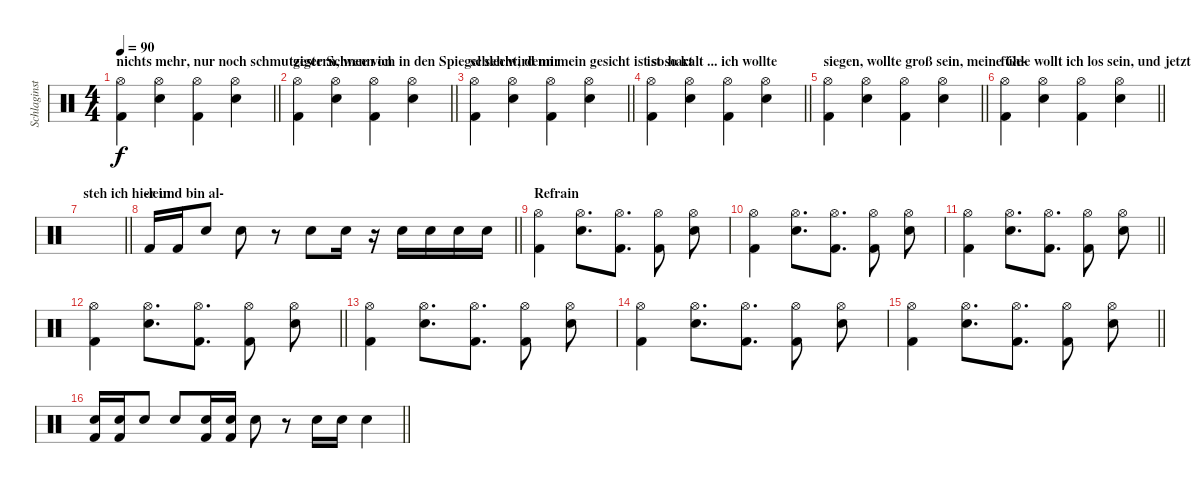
\track ("Schlaginstrumente - Auswahl" "Schlaginst") {instrument percussion}
\staff {score}
\articulation defaults
\ts (4 4)
\section ("" "nichts mehr, nur noch schmutziger Schnee von")
\tempo 90
\clef neutral
\barLineRight lightlight
\ks c
("Kick (hit) 2" "Hi-Hat (open)").4{dy f} ("Snare (hit) 2" "Hi-Hat (open)").4 ("Kick (hit) 2" "Hi-Hat (open)").4 ("Snare (hit) 2" "Hi-Hat (open)").4 |
\section ("" "gestern, wenn ich in den Spiegel seh wird mir")
\barLineRight lightlight
("Kick (hit) 2" "Hi-Hat (open)").4 ("Snare (hit) 2" "Hi-Hat (open)").4 ("Kick (hit) 2" "Hi-Hat (open)").4 ("Snare (hit) 2" "Hi-Hat (open)").4 |
\section ("" "schlecht, denn mein gesicht ist so hart")
\barLineRight lightlight
("Kick (hit) 2" "Hi-Hat (open)").4 ("Snare (hit) 2" "Hi-Hat (open)").4 ("Kick (hit) 2" "Hi-Hat (open)").4 ("Snare (hit) 2" "Hi-Hat (open)").4 |
\section ("" "ist so kalt ... ich wollte")
\barLineRight lightlight
("Kick (hit) 2" "Hi-Hat (open)").4 ("Snare (hit) 2" "Hi-Hat (open)").4 ("Kick (hit) 2" "Hi-Hat (open)").4 ("Snare (hit) 2" "Hi-Hat (open)").4 |
\section ("" "siegen, wollte groß sein, meine Ge-")
\barLineRight lightlight
("Kick (hit) 2" "Hi-Hat (open)").4 ("Snare (hit) 2" "Hi-Hat (open)").4 ("Kick (hit) 2" "Hi-Hat (open)").4 ("Snare (hit) 2" "Hi-Hat (open)").4 |
\section ("" "fühle wollt ich los sein, und jetzt")
\barLineRight lightlight
("Kick (hit) 2" "Hi-Hat (open)").4 ("Snare (hit) 2" "Hi-Hat (open)").4 ("Kick (hit) 2" "Hi-Hat (open)").4 ("Snare (hit) 2" "Hi-Hat (open)").4 |
\section ("" "steh ich hier und bin al-")
\barLineRight lightlight
|
\section ("" "-lein")
\barLineRight lightlight "Kick (hit) 2".16 "Kick (hit) 2".16 "Electric Snare (hit)".8 "Electric Snare (hit)".8
r.8 "Electric Snare (hit)".8 "Electric Snare (hit)".16 r.16 "Electric Snare (hit)".16 "Electric Snare (hit)".16 "Electric Snare (hit)".16 "Electric Snare (hit)".16 |
\section ("" "Refrain")
("Kick (hit) 2" "Hi-Hat (open)").4 ("Snare (hit) 2" "Hi-Hat (open)").8{d} ("Kick (hit) 2" "Hi-Hat (open)").8{d} ("Kick (hit) 2" "Hi-Hat (open)").8 ("Snare (hit) 2" "Hi-Hat (open)").8 |
("Kick (hit) 2" "Hi-Hat (open)").4 ("Snare (hit) 2" "Hi-Hat (open)").8{d} ("Kick (hit) 2" "Hi-Hat (open)").8{d} ("Kick (hit) 2" "Hi-Hat (open)").8 ("Snare (hit) 2" "Hi-Hat (open)").8 |
\barLineRight lightlight
("Kick (hit) 2" "Hi-Hat (open)").4 ("Snare (hit) 2" "Hi-Hat (open)").8{d} ("Kick (hit) 2" "Hi-Hat (open)").8{d} ("Kick (hit) 2" "Hi-Hat (open)").8 ("Snare (hit) 2" "Hi-Hat (open)").8 |
\barLineRight lightlight
("Kick (hit) 2" "Hi-Hat (open)").4 ("Snare (hit) 2" "Hi-Hat (open)").8{d} ("Kick (hit) 2" "Hi-Hat (open)").8{d} ("Kick (hit) 2" "Hi-Hat (open)").8 ("Snare (hit) 2" "Hi-Hat (open)").8 |
("Kick (hit) 2" "Hi-Hat (open)").4 ("Snare (hit) 2" "Hi-Hat (open)").8{d} ("Kick (hit) 2" "Hi-Hat (open)").8{d} ("Kick (hit) 2" "Hi-Hat (open)").8 ("Snare (hit) 2" "Hi-Hat (open)").8 |
("Kick (hit) 2" "Hi-Hat (open)").4 ("Snare (hit) 2" "Hi-Hat (open)").8{d} ("Kick (hit) 2" "Hi-Hat (open)").8{d} ("Kick (hit) 2" "Hi-Hat (open)").8 ("Snare (hit) 2" "Hi-Hat (open)").8 |
\barLineRight lightlight
("Kick (hit) 2" "Hi-Hat (open)").4 ("Snare (hit) 2" "Hi-Hat (open)").8{d} ("Kick (hit) 2" "Hi-Hat (open)").8{d} ("Kick (hit) 2" "Hi-Hat (open)").8 ("Snare (hit) 2" "Hi-Hat (open)").8 |
\barLineRight lightlight
("Kick (hit) 2" "Snare (hit) 2").16 ("Kick (hit) 2" "Snare (hit) 2").16 "Snare (hit) 2".8 "Snare (hit) 2".8 ("Kick (hit) 2" "Snare (hit) 2").16 ("Kick (hit) 2" "Snare (hit) 2").16 "Snare (hit) 2".8 r.8 "Snare (hit) 2".16 "Snare (hit) 2".16 "Snare (hit) 2".4
